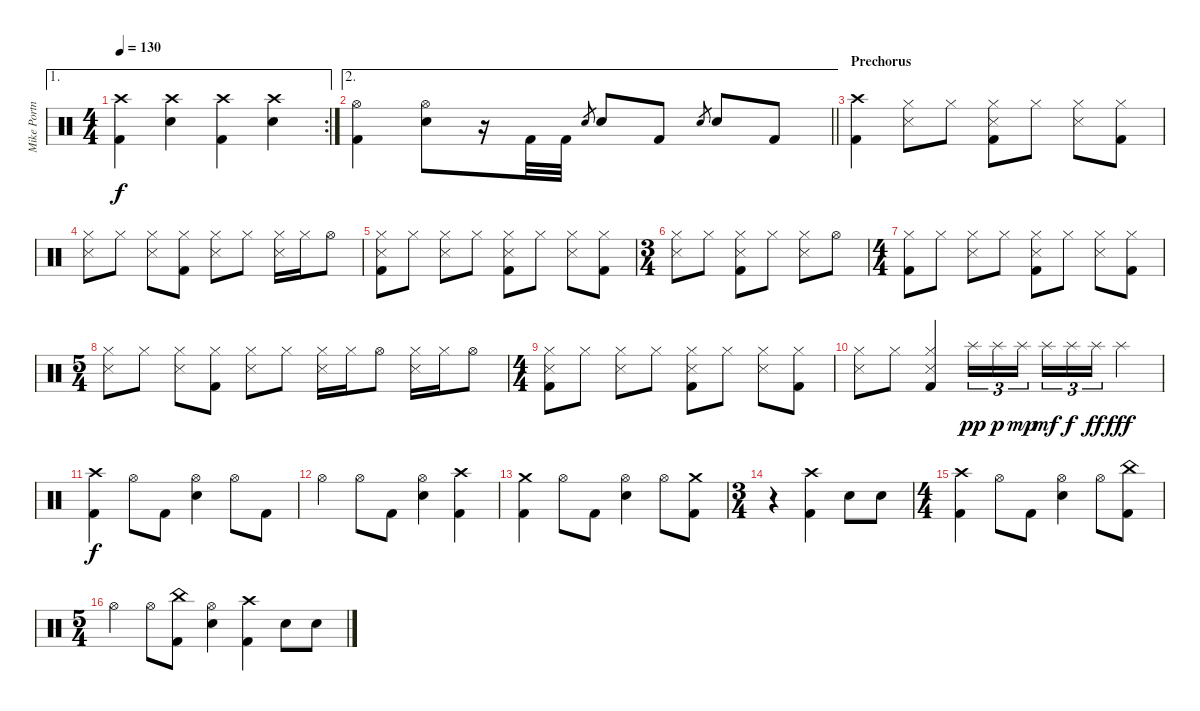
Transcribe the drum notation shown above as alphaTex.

\track ("Mike Portnoy" "Mike Portn") {instrument percussion}
\staff {score}
\articulation defaults
\ae 1
\rc 2
\ts (4 4)
\tempo 130
\clef neutral
\ks c
("Crash high (hit)" "Kick (hit) 2").4{dy f} ("Crash high (hit)" "Electric Snare (hit)").4 ("Crash high (hit)" "Kick (hit) 2").4 ("Crash high (hit)" "Electric Snare (hit)").4 |
\ae 2
\barLineRight lightlight
("Hi-Hat (open)" "Kick (hit) 2").4 ("Hi-Hat (open)" "Electric Snare (hit)").8 r.16 "Kick (hit) 2".32 "Kick (hit) 2".32 "Electric Snare (hit)".8{gr} "Electric Snare (hit)".8 "Kick (hit) 2".8 "Electric Snare (hit)".8{gr} "Electric Snare (hit)".8 "Kick (hit) 2".8 |
\section ("" "Prechorus")
("Crash high (hit)" "Kick (hit) 2").4 ("Hi-Hat (closed)" "Snare (side stick) 3").8 "Hi-Hat (closed)".8 ("Hi-Hat (closed)" "Snare (side stick) 3" "Kick (hit) 2").8 "Hi-Hat (closed)".8 ("Hi-Hat (closed)" "Snare (side stick) 3").8 ("Hi-Hat (closed)" "Kick (hit) 2").8 |
("Hi-Hat (closed)" "Snare (side stick) 3").8 "Hi-Hat (closed)".8 ("Hi-Hat (closed)" "Snare (side stick) 3").8 ("Hi-Hat (closed)" "Kick (hit) 2").8 ("Hi-Hat (closed)" "Snare (side stick) 3").8 "Hi-Hat (closed)".8 ("Hi-Hat (closed)" "Snare (side stick) 3").16 "Hi-Hat (closed)".16 "Hi-Hat (open)".8 |
("Hi-Hat (closed)" "Snare (side stick) 3" "Kick (hit) 2").8 "Hi-Hat (closed)".8 ("Hi-Hat (closed)" "Snare (side stick) 3").8 "Hi-Hat (closed)".8 ("Hi-Hat (closed)" "Snare (side stick) 3" "Kick (hit) 2").8 "Hi-Hat (closed)".8 ("Hi-Hat (closed)" "Snare (side stick) 3").8 ("Hi-Hat (closed)" "Kick (hit) 2").8 |
\ts (3 4)
("Hi-Hat (closed)" "Snare (side stick) 3").8 "Hi-Hat (closed)".8 ("Hi-Hat (closed)" "Snare (side stick) 3" "Kick (hit) 2").8 "Hi-Hat (closed)".8 ("Hi-Hat (closed)" "Snare (side stick) 3").8 "Hi-Hat (open)".8 |
\ts (4 4)
("Hi-Hat (closed)" "Kick (hit) 2").8 "Hi-Hat (closed)".8 ("Hi-Hat (closed)" "Snare (side stick) 3").8 "Hi-Hat (closed)".8 ("Hi-Hat (closed)" "Snare (side stick) 3" "Kick (hit) 2").8 "Hi-Hat (closed)".8 ("Hi-Hat (closed)" "Snare (side stick) 3").8 ("Hi-Hat (closed)" "Kick (hit) 2").8 |
\ts (5 4)
("Hi-Hat (closed)" "Snare (side stick) 3").8 "Hi-Hat (closed)".8 ("Hi-Hat (closed)" "Snare (side stick) 3").8 ("Hi-Hat (closed)" "Kick (hit) 2").8 ("Hi-Hat (closed)" "Snare (side stick) 3").8 "Hi-Hat (closed)".8 ("Hi-Hat (closed)" "Snare (side stick) 3").16 "Hi-Hat (closed)".16 "Hi-Hat (open)".8 ("Hi-Hat (closed)" "Snare (side stick) 3").16 "Hi-Hat (closed)".16 "Hi-Hat (open)".8 |
\ts (4 4)
("Hi-Hat (closed)" "Snare (side stick) 3" "Kick (hit) 2").8 "Hi-Hat (closed)".8 ("Hi-Hat (closed)" "Snare (side stick) 3").8 "Hi-Hat (closed)".8 ("Hi-Hat (closed)" "Snare (side stick) 3" "Kick (hit) 2").8 "Hi-Hat (closed)".8 ("Hi-Hat (closed)" "Snare (side stick) 3").8 ("Hi-Hat (closed)" "Kick (hit) 2").8 |
("Hi-Hat (closed)" "Snare (side stick) 3").8 "Hi-Hat (closed)".8 ("Hi-Hat (closed)" "Snare (side stick) 3" "Kick (hit) 2").4 "Splash (hit)".16{tu (3 2) dy pp} "Splash (hit)".16{tu (3 2) dy p} "Splash (hit)".16{tu (3 2) dy mp beam splitsecondary} "Splash (hit)".16{tu (3 2) dy mf} "Splash (hit)".16{tu (3 2) dy f} "Splash (hit)".16{tu (3 2) dy ff} "Splash (hit)".4{dy fff} |
("Crash high (hit)" "Kick (hit) 2").4{dy f} "Hi-Hat (open)".8 "Kick (hit) 2".8 ("Hi-Hat (open)" "Electric Snare (hit)").4 "Hi-Hat (open)".8 "Kick (hit) 2".8 |
"Hi-Hat (open)".4 "Hi-Hat (open)".8 "Kick (hit) 2".8 ("Hi-Hat (open)" "Electric Snare (hit)").4 ("Crash high (hit)" "Kick (hit) 2").4 |
("Crash medium (hit)" "Kick (hit) 2").4 "Hi-Hat (open)".8 "Kick (hit) 2".8 ("Hi-Hat (open)" "Electric Snare (hit)").4 "Hi-Hat (open)".8 ("Crash medium (hit)" "Kick (hit) 2").8 |
\ts (3 4)
r.4 ("Crash high (hit)" "Kick (hit) 2").4 "Electric Snare (hit)".8 "Electric Snare (hit)".8 |
\ts (4 4)
("Crash high (hit)" "Kick (hit) 2").4 "Hi-Hat (open)".8 "Kick (hit) 2".8 ("Hi-Hat (open)" "Electric Snare (hit)").4 "Hi-Hat (open)".8 ("China (hit)" "Kick (hit) 2").8 |
\ts (5 4)
"Hi-Hat (open)".4 "Hi-Hat (open)".8 ("China (hit)" "Kick (hit) 2").8 ("Hi-Hat (open)" "Electric Snare (hit)").4 ("Crash high (hit)" "Kick (hit) 2").4 "Electric Snare (hit)".8 "Electric Snare (hit)".8
